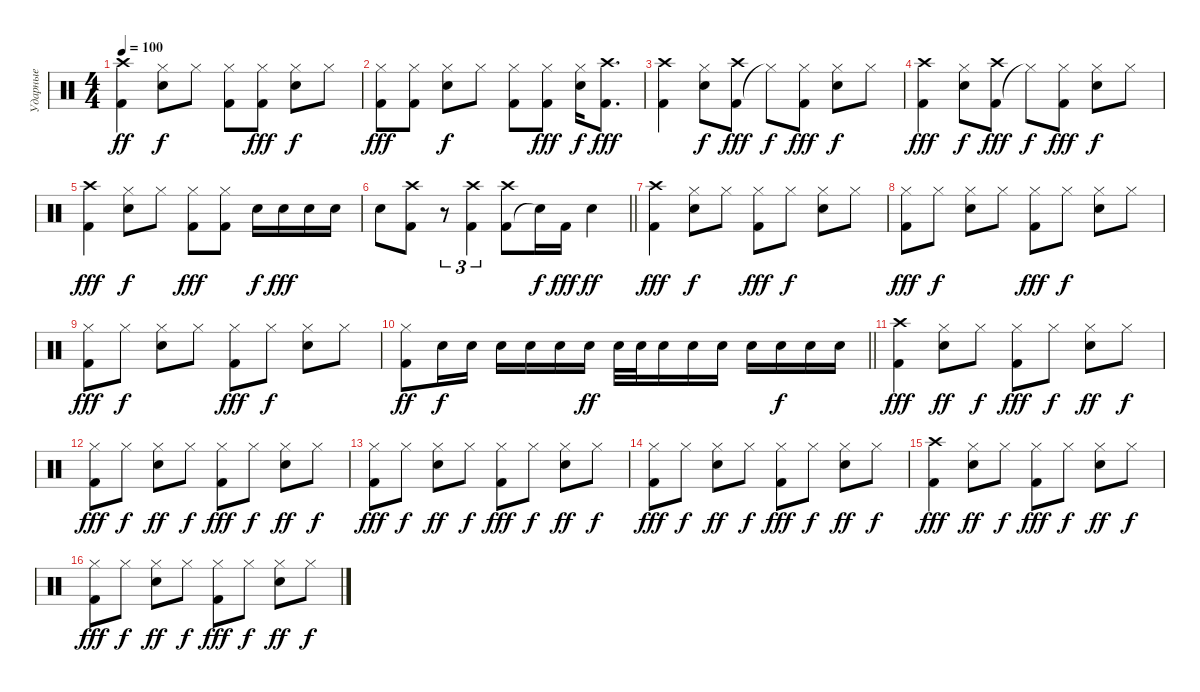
\track ("Ударные" "Ударные") {instrument percussion}
\staff
\articulation defaults
\ts (4 4)
\tempo 100
\clef neutral
\ks c
("Kick (hit) 2" "Crash high (hit)").4{dy ff} ("Snare (hit) 2" "Hi-Hat (closed)").8{dy f} "Hi-Hat (closed)".8 ("Kick (hit) 2" "Hi-Hat (closed)").8 ("Kick (hit) 2" "Hi-Hat (closed)").8{dy fff} ("Snare (hit) 2" "Hi-Hat (closed)").8{dy f} "Hi-Hat (closed)".8 |
("Kick (hit) 2" "Hi-Hat (closed)").8{dy fff} ("Kick (hit) 2" "Hi-Hat (closed)").8 ("Snare (hit) 2" "Hi-Hat (closed)").8{dy f} "Hi-Hat (closed)".8 ("Kick (hit) 2" "Hi-Hat (closed)").8 ("Kick (hit) 2" "Hi-Hat (closed)").8{dy fff} ("Snare (hit) 2" "Hi-Hat (closed)").16{dy f} ("Kick (hit) 2" "Crash high (hit)").8{d dy fff} |
("Kick (hit) 2" "Crash high (hit)").4 ("Snare (hit) 2" "Hi-Hat (closed)").8{dy f} ("Kick (hit) 2" "Crash high (hit)").8{dy fff} "Hi-Hat (closed)"{t}.8{dy f} ("Kick (hit) 2" "Hi-Hat (closed)").8{dy fff} ("Snare (hit) 2" "Hi-Hat (closed)").8{dy f} "Hi-Hat (closed)".8 |
("Kick (hit) 2" "Crash high (hit)").4{dy fff} ("Snare (hit) 2" "Hi-Hat (closed)").8{dy f} ("Kick (hit) 2" "Crash high (hit)").8{dy fff} "Hi-Hat (closed)"{t}.8{dy f} ("Kick (hit) 2" "Hi-Hat (closed)").8{dy fff} ("Snare (hit) 2" "Hi-Hat (closed)").8{dy f} "Hi-Hat (closed)".8 |
("Kick (hit) 2" "Crash high (hit)").4{dy fff} ("Snare (hit) 2" "Hi-Hat (closed)").8{dy f} "Hi-Hat (closed)".8 ("Kick (hit) 2" "Hi-Hat (closed)").8{dy fff} ("Kick (hit) 2" "Hi-Hat (closed)").8 "Snare (hit) 2".16{dy f} "Snare (hit) 2".16{dy fff} "Snare (hit) 2".16 "Snare (hit) 2".16 |
\barLineRight lightlight "Snare (hit) 2".8
("Kick (hit) 2" "Crash high (hit)").8 r.8{tu (3 2)} ("Kick (hit) 2" "Crash high (hit)").4{tu (3 2)} ("Kick (hit) 2" "Crash high (hit)").8 "Snare (hit)"{t}.16{dy f} "Kick (hit) 2".16{dy fff} "Snare (hit) 2".4{dy ff} |
("Kick (hit) 2" "Crash high (hit)").4{dy fff} ("Snare (hit) 2" "Hi-Hat (closed)").8{dy f} "Hi-Hat (closed)".8 ("Kick (hit) 2" "Hi-Hat (closed)").8{dy fff} "Hi-Hat (closed)".8{dy f} ("Snare (hit) 2" "Hi-Hat (closed)").8 "Hi-Hat (closed)".8 |
("Kick (hit) 2" "Hi-Hat (closed)").8{dy fff} "Hi-Hat (closed)".8{dy f} ("Snare (hit) 2" "Hi-Hat (closed)").8 "Hi-Hat (closed)".8 ("Kick (hit) 2" "Hi-Hat (closed)").8{dy fff} "Hi-Hat (closed)".8{dy f} ("Snare (hit) 2" "Hi-Hat (closed)").8 "Hi-Hat (closed)".8 |
("Kick (hit) 2" "Hi-Hat (closed)").8{dy fff} "Hi-Hat (closed)".8{dy f} ("Snare (hit) 2" "Hi-Hat (closed)").8 "Hi-Hat (closed)".8 ("Kick (hit) 2" "Hi-Hat (closed)").8{dy fff} "Hi-Hat (closed)".8{dy f} ("Snare (hit) 2" "Hi-Hat (closed)").8 "Hi-Hat (closed)".8 |
\barLineRight lightlight
("Kick (hit) 2" "Hi-Hat (closed)").8{dy ff} "Snare (hit) 2".16{dy f} "Snare (hit) 2".16 "Snare (hit) 2".16 "Snare (hit) 2".16 "Snare (hit) 2".16 "Electric Snare (hit)".16{dy ff} "Electric Snare (hit)".32 "Electric Snare (hit)".32 "Electric Snare (hit)".16 "Electric Snare (hit)".16 "Electric Snare (hit)".16 "Electric Snare (hit)".16 "Electric Snare (hit)".16{dy f} "Electric Snare (hit)".16 "Electric Snare (hit)".16 |
("Kick (hit) 2" "Crash high (hit)").4{dy fff} ("Snare (hit) 2" "Hi-Hat (closed)").8{dy ff} "Hi-Hat (closed)".8{dy f} ("Kick (hit) 2" "Hi-Hat (closed)").8{dy fff} "Hi-Hat (closed)".8{dy f} ("Snare (hit) 2" "Hi-Hat (closed)").8{dy ff} "Hi-Hat (closed)".8{dy f} |
("Kick (hit) 2" "Hi-Hat (closed)").8{dy fff} "Hi-Hat (closed)".8{dy f} ("Snare (hit) 2" "Hi-Hat (closed)").8{dy ff} "Hi-Hat (closed)".8{dy f} ("Kick (hit) 2" "Hi-Hat (closed)").8{dy fff} "Hi-Hat (closed)".8{dy f} ("Snare (hit) 2" "Hi-Hat (closed)").8{dy ff} "Hi-Hat (closed)".8{dy f} |
("Kick (hit) 2" "Hi-Hat (closed)").8{dy fff} "Hi-Hat (closed)".8{dy f} ("Snare (hit) 2" "Hi-Hat (closed)").8{dy ff} "Hi-Hat (closed)".8{dy f} ("Kick (hit) 2" "Hi-Hat (closed)").8{dy fff} "Hi-Hat (closed)".8{dy f} ("Snare (hit) 2" "Hi-Hat (closed)").8{dy ff} "Hi-Hat (closed)".8{dy f} |
("Kick (hit) 2" "Hi-Hat (closed)").8{dy fff} "Hi-Hat (closed)".8{dy f} ("Snare (hit) 2" "Hi-Hat (closed)").8{dy ff} "Hi-Hat (closed)".8{dy f} ("Kick (hit) 2" "Hi-Hat (closed)").8{dy fff} "Hi-Hat (closed)".8{dy f} ("Snare (hit) 2" "Hi-Hat (closed)").8{dy ff} "Hi-Hat (closed)".8{dy f} |
("Kick (hit) 2" "Crash high (hit)").4{dy fff} ("Snare (hit) 2" "Hi-Hat (closed)").8{dy ff} "Hi-Hat (closed)".8{dy f} ("Kick (hit) 2" "Hi-Hat (closed)").8{dy fff} "Hi-Hat (closed)".8{dy f} ("Snare (hit) 2" "Hi-Hat (closed)").8{dy ff} "Hi-Hat (closed)".8{dy f} |
("Kick (hit) 2" "Hi-Hat (closed)").8{dy fff} "Hi-Hat (closed)".8{dy f} ("Snare (hit) 2" "Hi-Hat (closed)").8{dy ff} "Hi-Hat (closed)".8{dy f} ("Kick (hit) 2" "Hi-Hat (closed)").8{dy fff} "Hi-Hat (closed)".8{dy f} ("Snare (hit) 2" "Hi-Hat (closed)").8{dy ff} "Hi-Hat (closed)".8{dy f}
